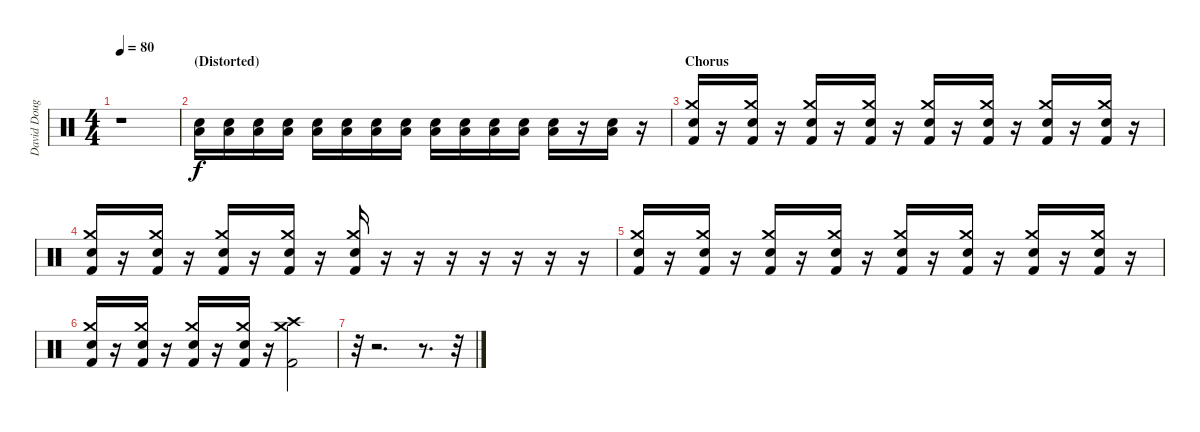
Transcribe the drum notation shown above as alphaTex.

\track ("David Douglas" "David Doug") {instrument percussion}
\staff {score}
\articulation defaults
\ts (4 4)
\tempo 80
\clef neutral
\ks c
r.1{dy f} |
\section ("" "(Distorted)")
("Low Tom (hit)" "Electric Snare (hit)").16 ("Low Tom (hit)" "Electric Snare (hit)").16 ("Low Tom (hit)" "Electric Snare (hit)").16 ("Low Tom (hit)" "Electric Snare (hit)").16 ("Low Tom (hit)" "Electric Snare (hit)").16 ("Low Tom (hit)" "Electric Snare (hit)").16 ("Low Tom (hit)" "Electric Snare (hit)").16 ("Low Tom (hit)" "Electric Snare (hit)").16 ("Low Tom (hit)" "Electric Snare (hit)").16 ("Low Tom (hit)" "Electric Snare (hit)").16 ("Low Tom (hit)" "Electric Snare (hit)").16 ("Low Tom (hit)" "Electric Snare (hit)").16 ("Low Tom (hit)" "Electric Snare (hit)").16 r.16 ("Low Tom (hit)" "Electric Snare (hit)").16 r.16 |
\section ("" "Chorus")
("Crash medium (hit)" "Electric Snare (hit)" "Kick (hit) 2").16 r.16 ("Crash medium (hit)" "Electric Snare (hit)" "Kick (hit) 2").16 r.16 ("Crash medium (hit)" "Electric Snare (hit)" "Kick (hit) 2").16 r.16 ("Crash medium (hit)" "Electric Snare (hit)" "Kick (hit) 2").16 r.16 ("Crash medium (hit)" "Electric Snare (hit)" "Kick (hit) 2").16 r.16 ("Crash medium (hit)" "Electric Snare (hit)" "Kick (hit) 2").16 r.16 ("Crash medium (hit)" "Electric Snare (hit)" "Kick (hit) 2").16 r.16 ("Crash medium (hit)" "Electric Snare (hit)" "Kick (hit) 2").16 r.16 |
("Crash medium (hit)" "Electric Snare (hit)" "Kick (hit) 2").16 r.16 ("Crash medium (hit)" "Electric Snare (hit)" "Kick (hit) 2").16 r.16 ("Crash medium (hit)" "Electric Snare (hit)" "Kick (hit) 2").16 r.16 ("Crash medium (hit)" "Electric Snare (hit)" "Kick (hit) 2").16 r.16 ("Crash medium (hit)" "Electric Snare (hit)" "Kick (hit) 2").16 r.16 r.16 r.16 r.16 r.16 r.16 r.16 |
("Crash medium (hit)" "Electric Snare (hit)" "Kick (hit) 2").16 r.16 ("Crash medium (hit)" "Electric Snare (hit)" "Kick (hit) 2").16 r.16 ("Crash medium (hit)" "Electric Snare (hit)" "Kick (hit) 2").16 r.16 ("Crash medium (hit)" "Electric Snare (hit)" "Kick (hit) 2").16 r.16 ("Crash medium (hit)" "Electric Snare (hit)" "Kick (hit) 2").16 r.16 ("Crash medium (hit)" "Electric Snare (hit)" "Kick (hit) 2").16 r.16 ("Crash medium (hit)" "Electric Snare (hit)" "Kick (hit) 2").16 r.16 ("Crash medium (hit)" "Electric Snare (hit)" "Kick (hit) 2").16 r.16 |
("Crash medium (hit)" "Electric Snare (hit)" "Kick (hit) 2").16 r.16 ("Crash medium (hit)" "Electric Snare (hit)" "Kick (hit) 2").16 r.16 ("Crash medium (hit)" "Electric Snare (hit)" "Kick (hit) 2").16 r.16 ("Crash medium (hit)" "Electric Snare (hit)" "Kick (hit) 2").16 r.16 ("Crash medium (hit)" "Crash high (hit)" "Kick (hit) 2").2 |
r.32 r.2{d} r.8{d} r.32
